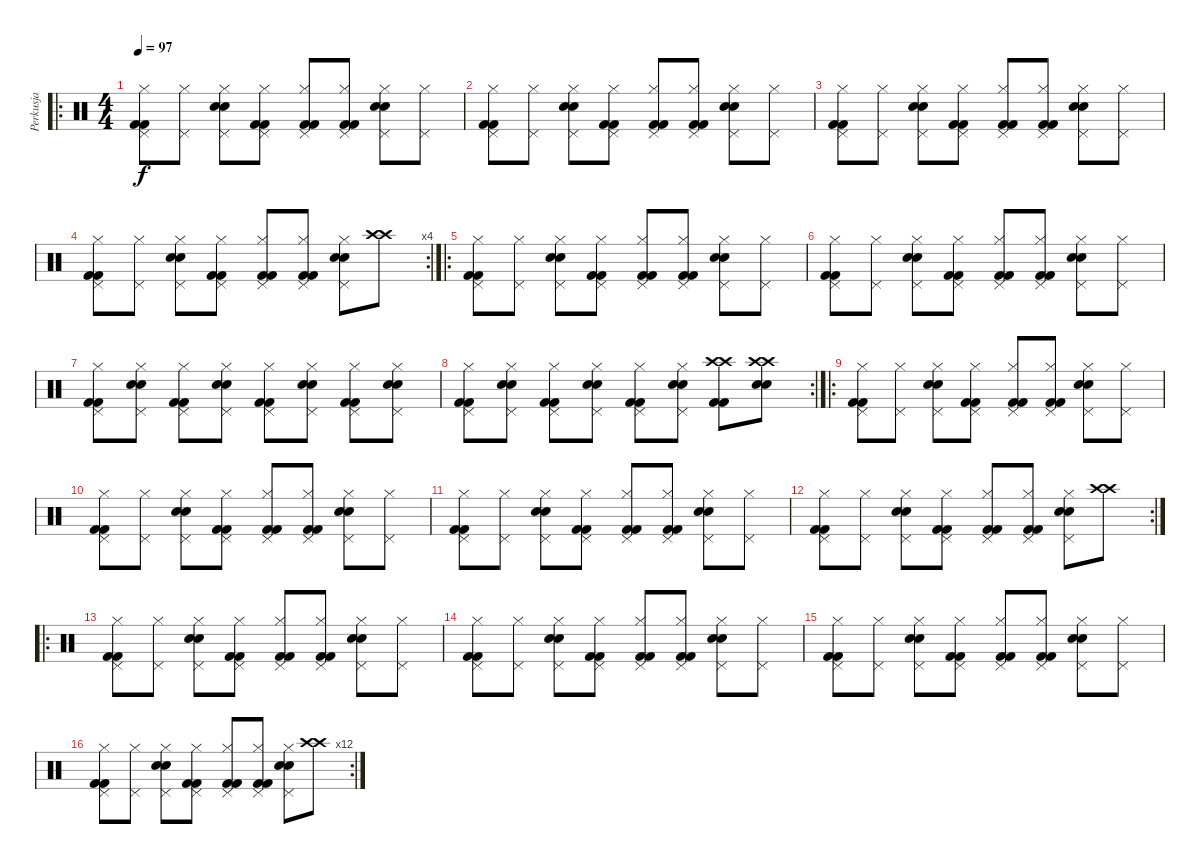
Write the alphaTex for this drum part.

\track ("Perkusja" "Perkusja") {instrument percussion}
\staff {score}
\articulation defaults
\ro
\ts (4 4)
\tempo 97
\clef neutral
\ks c
("Kick (hit) 2" "Kick (hit) 2" "Hi-Hat (closed)" "Pedal Hi-Hat (hit)").8{dy f} ("Hi-Hat (closed)" "Pedal Hi-Hat (hit)").8 ("Electric Snare (hit)" "Electric Snare (hit)" "Hi-Hat (closed)" "Pedal Hi-Hat (hit)").8 ("Kick (hit) 2" "Kick (hit) 2" "Hi-Hat (closed)" "Pedal Hi-Hat (hit)").8 ("Kick (hit) 2" "Kick (hit) 2" "Hi-Hat (closed)" "Pedal Hi-Hat (hit)").8 ("Kick (hit) 2" "Kick (hit) 2" "Hi-Hat (closed)" "Pedal Hi-Hat (hit)").8 ("Electric Snare (hit)" "Electric Snare (hit)" "Hi-Hat (closed)" "Pedal Hi-Hat (hit)").8 ("Hi-Hat (closed)" "Pedal Hi-Hat (hit)").8 |
("Kick (hit) 2" "Kick (hit) 2" "Hi-Hat (closed)" "Pedal Hi-Hat (hit)").8 ("Hi-Hat (closed)" "Pedal Hi-Hat (hit)").8 ("Electric Snare (hit)" "Electric Snare (hit)" "Hi-Hat (closed)" "Pedal Hi-Hat (hit)").8 ("Kick (hit) 2" "Kick (hit) 2" "Hi-Hat (closed)" "Pedal Hi-Hat (hit)").8 ("Kick (hit) 2" "Kick (hit) 2" "Hi-Hat (closed)" "Pedal Hi-Hat (hit)").8 ("Kick (hit) 2" "Kick (hit) 2" "Hi-Hat (closed)" "Pedal Hi-Hat (hit)").8 ("Electric Snare (hit)" "Electric Snare (hit)" "Hi-Hat (closed)" "Pedal Hi-Hat (hit)").8 ("Hi-Hat (closed)" "Pedal Hi-Hat (hit)").8 |
("Kick (hit) 2" "Kick (hit) 2" "Hi-Hat (closed)" "Pedal Hi-Hat (hit)").8 ("Hi-Hat (closed)" "Pedal Hi-Hat (hit)").8 ("Electric Snare (hit)" "Electric Snare (hit)" "Hi-Hat (closed)" "Pedal Hi-Hat (hit)").8 ("Kick (hit) 2" "Kick (hit) 2" "Hi-Hat (closed)" "Pedal Hi-Hat (hit)").8 ("Kick (hit) 2" "Kick (hit) 2" "Hi-Hat (closed)" "Pedal Hi-Hat (hit)").8 ("Kick (hit) 2" "Kick (hit) 2" "Hi-Hat (closed)" "Pedal Hi-Hat (hit)").8 ("Electric Snare (hit)" "Electric Snare (hit)" "Hi-Hat (closed)" "Pedal Hi-Hat (hit)").8 ("Hi-Hat (closed)" "Pedal Hi-Hat (hit)").8 |
\rc 4
("Kick (hit) 2" "Kick (hit) 2" "Hi-Hat (closed)" "Pedal Hi-Hat (hit)").8 ("Hi-Hat (closed)" "Pedal Hi-Hat (hit)").8 ("Electric Snare (hit)" "Electric Snare (hit)" "Hi-Hat (closed)" "Pedal Hi-Hat (hit)").8 ("Kick (hit) 2" "Kick (hit) 2" "Hi-Hat (closed)" "Pedal Hi-Hat (hit)").8 ("Kick (hit) 2" "Kick (hit) 2" "Hi-Hat (closed)" "Pedal Hi-Hat (hit)").8 ("Kick (hit) 2" "Kick (hit) 2" "Hi-Hat (closed)" "Pedal Hi-Hat (hit)").8 ("Electric Snare (hit)" "Electric Snare (hit)" "Hi-Hat (closed)" "Pedal Hi-Hat (hit)").8 ("Crash high (hit)" "Crash high (hit)").8 |
\ro
("Kick (hit) 2" "Kick (hit) 2" "Hi-Hat (closed)" "Pedal Hi-Hat (hit)").8 ("Hi-Hat (closed)" "Pedal Hi-Hat (hit)").8 ("Electric Snare (hit)" "Electric Snare (hit)" "Hi-Hat (closed)" "Pedal Hi-Hat (hit)").8 ("Kick (hit) 2" "Kick (hit) 2" "Hi-Hat (closed)" "Pedal Hi-Hat (hit)").8 ("Kick (hit) 2" "Kick (hit) 2" "Hi-Hat (closed)" "Pedal Hi-Hat (hit)").8 ("Kick (hit) 2" "Kick (hit) 2" "Hi-Hat (closed)" "Pedal Hi-Hat (hit)").8 ("Electric Snare (hit)" "Electric Snare (hit)" "Hi-Hat (closed)" "Pedal Hi-Hat (hit)").8 ("Hi-Hat (closed)" "Pedal Hi-Hat (hit)").8 |
("Kick (hit) 2" "Kick (hit) 2" "Hi-Hat (closed)" "Pedal Hi-Hat (hit)").8 ("Hi-Hat (closed)" "Pedal Hi-Hat (hit)").8 ("Electric Snare (hit)" "Electric Snare (hit)" "Hi-Hat (closed)" "Pedal Hi-Hat (hit)").8 ("Kick (hit) 2" "Kick (hit) 2" "Hi-Hat (closed)" "Pedal Hi-Hat (hit)").8 ("Kick (hit) 2" "Kick (hit) 2" "Hi-Hat (closed)" "Pedal Hi-Hat (hit)").8 ("Kick (hit) 2" "Kick (hit) 2" "Hi-Hat (closed)" "Pedal Hi-Hat (hit)").8 ("Electric Snare (hit)" "Electric Snare (hit)" "Hi-Hat (closed)" "Pedal Hi-Hat (hit)").8 ("Hi-Hat (closed)" "Pedal Hi-Hat (hit)").8 |
("Kick (hit) 2" "Kick (hit) 2" "Hi-Hat (closed)" "Pedal Hi-Hat (hit)").8 ("Electric Snare (hit)" "Electric Snare (hit)" "Hi-Hat (closed)" "Pedal Hi-Hat (hit)").8 ("Kick (hit) 2" "Kick (hit) 2" "Hi-Hat (closed)" "Pedal Hi-Hat (hit)").8 ("Electric Snare (hit)" "Electric Snare (hit)" "Hi-Hat (closed)" "Pedal Hi-Hat (hit)").8 ("Kick (hit) 2" "Kick (hit) 2" "Hi-Hat (closed)" "Pedal Hi-Hat (hit)").8 ("Electric Snare (hit)" "Electric Snare (hit)" "Hi-Hat (closed)" "Pedal Hi-Hat (hit)").8 ("Kick (hit) 2" "Kick (hit) 2" "Hi-Hat (closed)" "Pedal Hi-Hat (hit)").8 ("Electric Snare (hit)" "Electric Snare (hit)" "Hi-Hat (closed)" "Pedal Hi-Hat (hit)").8 |
\rc 2
("Kick (hit) 2" "Kick (hit) 2" "Hi-Hat (closed)" "Pedal Hi-Hat (hit)").8 ("Electric Snare (hit)" "Electric Snare (hit)" "Hi-Hat (closed)" "Pedal Hi-Hat (hit)").8 ("Kick (hit) 2" "Kick (hit) 2" "Hi-Hat (closed)" "Pedal Hi-Hat (hit)").8 ("Electric Snare (hit)" "Electric Snare (hit)" "Hi-Hat (closed)" "Pedal Hi-Hat (hit)").8 ("Kick (hit) 2" "Kick (hit) 2" "Hi-Hat (closed)" "Pedal Hi-Hat (hit)").8 ("Electric Snare (hit)" "Electric Snare (hit)" "Hi-Hat (closed)" "Pedal Hi-Hat (hit)").8 ("Kick (hit) 2" "Kick (hit) 2" "Crash high (hit)" "Crash high (hit)").8 ("Electric Snare (hit)" "Electric Snare (hit)" "Crash high (hit)" "Crash high (hit)").8 |
\ro
("Kick (hit) 2" "Kick (hit) 2" "Hi-Hat (closed)" "Pedal Hi-Hat (hit)").8 ("Hi-Hat (closed)" "Pedal Hi-Hat (hit)").8 ("Electric Snare (hit)" "Electric Snare (hit)" "Hi-Hat (closed)" "Pedal Hi-Hat (hit)").8 ("Kick (hit) 2" "Kick (hit) 2" "Hi-Hat (closed)" "Pedal Hi-Hat (hit)").8 ("Kick (hit) 2" "Kick (hit) 2" "Hi-Hat (closed)" "Pedal Hi-Hat (hit)").8 ("Kick (hit) 2" "Kick (hit) 2" "Hi-Hat (closed)" "Pedal Hi-Hat (hit)").8 ("Electric Snare (hit)" "Electric Snare (hit)" "Hi-Hat (closed)" "Pedal Hi-Hat (hit)").8 ("Hi-Hat (closed)" "Pedal Hi-Hat (hit)").8 |
("Kick (hit) 2" "Kick (hit) 2" "Hi-Hat (closed)" "Pedal Hi-Hat (hit)").8 ("Hi-Hat (closed)" "Pedal Hi-Hat (hit)").8 ("Electric Snare (hit)" "Electric Snare (hit)" "Hi-Hat (closed)" "Pedal Hi-Hat (hit)").8 ("Kick (hit) 2" "Kick (hit) 2" "Hi-Hat (closed)" "Pedal Hi-Hat (hit)").8 ("Kick (hit) 2" "Kick (hit) 2" "Hi-Hat (closed)" "Pedal Hi-Hat (hit)").8 ("Kick (hit) 2" "Kick (hit) 2" "Hi-Hat (closed)" "Pedal Hi-Hat (hit)").8 ("Electric Snare (hit)" "Electric Snare (hit)" "Hi-Hat (closed)" "Pedal Hi-Hat (hit)").8 ("Hi-Hat (closed)" "Pedal Hi-Hat (hit)").8 |
("Kick (hit) 2" "Kick (hit) 2" "Hi-Hat (closed)" "Pedal Hi-Hat (hit)").8 ("Hi-Hat (closed)" "Pedal Hi-Hat (hit)").8 ("Electric Snare (hit)" "Electric Snare (hit)" "Hi-Hat (closed)" "Pedal Hi-Hat (hit)").8 ("Kick (hit) 2" "Kick (hit) 2" "Hi-Hat (closed)" "Pedal Hi-Hat (hit)").8 ("Kick (hit) 2" "Kick (hit) 2" "Hi-Hat (closed)" "Pedal Hi-Hat (hit)").8 ("Kick (hit) 2" "Kick (hit) 2" "Hi-Hat (closed)" "Pedal Hi-Hat (hit)").8 ("Electric Snare (hit)" "Electric Snare (hit)" "Hi-Hat (closed)" "Pedal Hi-Hat (hit)").8 ("Hi-Hat (closed)" "Pedal Hi-Hat (hit)").8 |
\rc 2
("Kick (hit) 2" "Kick (hit) 2" "Hi-Hat (closed)" "Pedal Hi-Hat (hit)").8 ("Hi-Hat (closed)" "Pedal Hi-Hat (hit)").8 ("Electric Snare (hit)" "Electric Snare (hit)" "Hi-Hat (closed)" "Pedal Hi-Hat (hit)").8 ("Kick (hit) 2" "Kick (hit) 2" "Hi-Hat (closed)" "Pedal Hi-Hat (hit)").8 ("Kick (hit) 2" "Kick (hit) 2" "Hi-Hat (closed)" "Pedal Hi-Hat (hit)").8 ("Kick (hit) 2" "Kick (hit) 2" "Hi-Hat (closed)" "Pedal Hi-Hat (hit)").8 ("Electric Snare (hit)" "Electric Snare (hit)" "Hi-Hat (closed)" "Pedal Hi-Hat (hit)").8 ("Crash high (hit)" "Crash high (hit)").8 |
\ro
("Kick (hit) 2" "Kick (hit) 2" "Hi-Hat (closed)" "Pedal Hi-Hat (hit)").8 ("Hi-Hat (closed)" "Pedal Hi-Hat (hit)").8 ("Electric Snare (hit)" "Electric Snare (hit)" "Hi-Hat (closed)" "Pedal Hi-Hat (hit)").8 ("Kick (hit) 2" "Kick (hit) 2" "Hi-Hat (closed)" "Pedal Hi-Hat (hit)").8 ("Kick (hit) 2" "Kick (hit) 2" "Hi-Hat (closed)" "Pedal Hi-Hat (hit)").8 ("Kick (hit) 2" "Kick (hit) 2" "Hi-Hat (closed)" "Pedal Hi-Hat (hit)").8 ("Electric Snare (hit)" "Electric Snare (hit)" "Hi-Hat (closed)" "Pedal Hi-Hat (hit)").8 ("Hi-Hat (closed)" "Pedal Hi-Hat (hit)").8 |
("Kick (hit) 2" "Kick (hit) 2" "Hi-Hat (closed)" "Pedal Hi-Hat (hit)").8 ("Hi-Hat (closed)" "Pedal Hi-Hat (hit)").8 ("Electric Snare (hit)" "Electric Snare (hit)" "Hi-Hat (closed)" "Pedal Hi-Hat (hit)").8 ("Kick (hit) 2" "Kick (hit) 2" "Hi-Hat (closed)" "Pedal Hi-Hat (hit)").8 ("Kick (hit) 2" "Kick (hit) 2" "Hi-Hat (closed)" "Pedal Hi-Hat (hit)").8 ("Kick (hit) 2" "Kick (hit) 2" "Hi-Hat (closed)" "Pedal Hi-Hat (hit)").8 ("Electric Snare (hit)" "Electric Snare (hit)" "Hi-Hat (closed)" "Pedal Hi-Hat (hit)").8 ("Hi-Hat (closed)" "Pedal Hi-Hat (hit)").8 |
("Kick (hit) 2" "Kick (hit) 2" "Hi-Hat (closed)" "Pedal Hi-Hat (hit)").8 ("Hi-Hat (closed)" "Pedal Hi-Hat (hit)").8 ("Electric Snare (hit)" "Electric Snare (hit)" "Hi-Hat (closed)" "Pedal Hi-Hat (hit)").8 ("Kick (hit) 2" "Kick (hit) 2" "Hi-Hat (closed)" "Pedal Hi-Hat (hit)").8 ("Kick (hit) 2" "Kick (hit) 2" "Hi-Hat (closed)" "Pedal Hi-Hat (hit)").8 ("Kick (hit) 2" "Kick (hit) 2" "Hi-Hat (closed)" "Pedal Hi-Hat (hit)").8 ("Electric Snare (hit)" "Electric Snare (hit)" "Hi-Hat (closed)" "Pedal Hi-Hat (hit)").8 ("Hi-Hat (closed)" "Pedal Hi-Hat (hit)").8 |
\rc 12
("Kick (hit) 2" "Kick (hit) 2" "Hi-Hat (closed)" "Pedal Hi-Hat (hit)").8 ("Hi-Hat (closed)" "Pedal Hi-Hat (hit)").8 ("Electric Snare (hit)" "Electric Snare (hit)" "Hi-Hat (closed)" "Pedal Hi-Hat (hit)").8 ("Kick (hit) 2" "Kick (hit) 2" "Hi-Hat (closed)" "Pedal Hi-Hat (hit)").8 ("Kick (hit) 2" "Kick (hit) 2" "Hi-Hat (closed)" "Pedal Hi-Hat (hit)").8 ("Kick (hit) 2" "Kick (hit) 2" "Hi-Hat (closed)" "Pedal Hi-Hat (hit)").8 ("Electric Snare (hit)" "Electric Snare (hit)" "Hi-Hat (closed)" "Pedal Hi-Hat (hit)").8 ("Crash high (hit)" "Crash high (hit)").8
